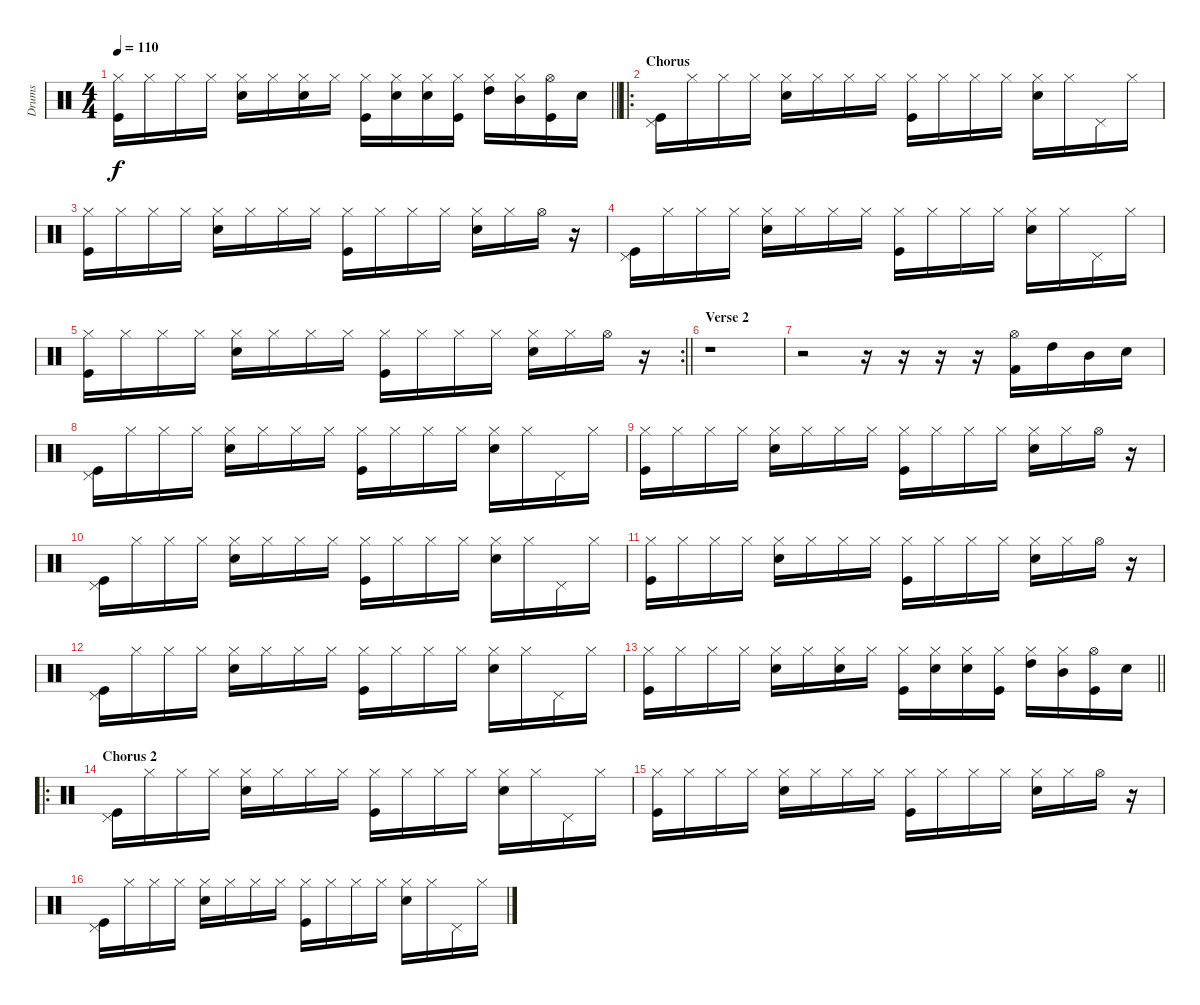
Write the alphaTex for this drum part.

\track ("Drums" "Drums") {instrument percussion}
\staff {score}
\articulation defaults
\ts (4 4)
\tempo 110
\clef neutral
\barLineRight lightlight
\ks c
("Hi-Hat (closed)" "Kick (hit)").16{dy f} "Hi-Hat (closed)".16 "Hi-Hat (closed)".16 "Hi-Hat (closed)".16 ("Hi-Hat (closed)" "Snare (hit) 2").16 "Hi-Hat (closed)".16 ("Hi-Hat (closed)" "Snare (hit) 2").16 "Hi-Hat (closed)".16 ("Hi-Hat (closed)" "Kick (hit)").16 ("Hi-Hat (closed)" "Snare (hit) 2").16 ("Hi-Hat (closed)" "Snare (hit) 2").16 ("Hi-Hat (closed)" "Kick (hit)").16 ("Hi-Hat (closed)" "High Tom (hit)").16 ("Hi-Hat (closed)" "Mid Tom (hit)").16 ("Hi-Hat (open)" "Kick (hit)").16 "Snare (hit) 2".16 |
\ro
\section ("" "Chorus")
("Pedal Hi-Hat (hit)" "Kick (hit)").16 "Hi-Hat (closed)".16 "Hi-Hat (closed)".16 "Hi-Hat (closed)".16 ("Hi-Hat (closed)" "Snare (hit) 2").16 "Hi-Hat (closed)".16 "Hi-Hat (closed)".16 "Hi-Hat (closed)".16 ("Hi-Hat (closed)" "Kick (hit)").16 "Hi-Hat (closed)".16 "Hi-Hat (closed)".16 "Hi-Hat (closed)".16 ("Hi-Hat (closed)" "Snare (hit) 2").16 "Hi-Hat (closed)".16 "Pedal Hi-Hat (hit)".16 "Hi-Hat (closed)".16 |
("Hi-Hat (closed)" "Kick (hit)").16 "Hi-Hat (closed)".16 "Hi-Hat (closed)".16 "Hi-Hat (closed)".16 ("Hi-Hat (closed)" "Snare (hit) 2").16 "Hi-Hat (closed)".16 "Hi-Hat (closed)".16 "Hi-Hat (closed)".16 ("Hi-Hat (closed)" "Kick (hit)").16 "Hi-Hat (closed)".16 "Hi-Hat (closed)".16 "Hi-Hat (closed)".16 ("Hi-Hat (closed)" "Snare (hit) 2").16 "Hi-Hat (closed)".16 "Hi-Hat (open)".16 r.16 |
("Pedal Hi-Hat (hit)" "Kick (hit)").16 "Hi-Hat (closed)".16 "Hi-Hat (closed)".16 "Hi-Hat (closed)".16 ("Hi-Hat (closed)" "Snare (hit) 2").16 "Hi-Hat (closed)".16 "Hi-Hat (closed)".16 "Hi-Hat (closed)".16 ("Hi-Hat (closed)" "Kick (hit)").16 "Hi-Hat (closed)".16 "Hi-Hat (closed)".16 "Hi-Hat (closed)".16 ("Hi-Hat (closed)" "Snare (hit) 2").16 "Hi-Hat (closed)".16 "Pedal Hi-Hat (hit)".16 "Hi-Hat (closed)".16 |
\rc 2
\barLineRight lightlight
("Hi-Hat (closed)" "Kick (hit)").16 "Hi-Hat (closed)".16 "Hi-Hat (closed)".16 "Hi-Hat (closed)".16 ("Hi-Hat (closed)" "Snare (hit) 2").16 "Hi-Hat (closed)".16 "Hi-Hat (closed)".16 "Hi-Hat (closed)".16 ("Hi-Hat (closed)" "Kick (hit)").16 "Hi-Hat (closed)".16 "Hi-Hat (closed)".16 "Hi-Hat (closed)".16 ("Hi-Hat (closed)" "Snare (hit) 2").16 "Hi-Hat (closed)".16 "Hi-Hat (open)".16 r.16 |
\section ("" "Verse 2")
r.1 |
r.2 r.16 r.16 r.16 r.16 ("Hi-Hat (open)" "Kick (hit) 2").16 "High Tom (hit)".16 "Mid Tom (hit)".16 "Snare (hit) 2".16 |
("Pedal Hi-Hat (hit)" "Kick (hit)").16 "Hi-Hat (closed)".16 "Hi-Hat (closed)".16 "Hi-Hat (closed)".16 ("Hi-Hat (closed)" "Snare (hit) 2").16 "Hi-Hat (closed)".16 "Hi-Hat (closed)".16 "Hi-Hat (closed)".16 ("Hi-Hat (closed)" "Kick (hit)").16 "Hi-Hat (closed)".16 "Hi-Hat (closed)".16 "Hi-Hat (closed)".16 ("Hi-Hat (closed)" "Snare (hit) 2").16 "Hi-Hat (closed)".16 "Pedal Hi-Hat (hit)".16 "Hi-Hat (closed)".16 |
("Hi-Hat (closed)" "Kick (hit)").16 "Hi-Hat (closed)".16 "Hi-Hat (closed)".16 "Hi-Hat (closed)".16 ("Hi-Hat (closed)" "Snare (hit) 2").16 "Hi-Hat (closed)".16 "Hi-Hat (closed)".16 "Hi-Hat (closed)".16 ("Hi-Hat (closed)" "Kick (hit)").16 "Hi-Hat (closed)".16 "Hi-Hat (closed)".16 "Hi-Hat (closed)".16 ("Hi-Hat (closed)" "Snare (hit) 2").16 "Hi-Hat (closed)".16 "Hi-Hat (open)".16 r.16 |
("Pedal Hi-Hat (hit)" "Kick (hit)").16 "Hi-Hat (closed)".16 "Hi-Hat (closed)".16 "Hi-Hat (closed)".16 ("Hi-Hat (closed)" "Snare (hit) 2").16 "Hi-Hat (closed)".16 "Hi-Hat (closed)".16 "Hi-Hat (closed)".16 ("Hi-Hat (closed)" "Kick (hit)").16 "Hi-Hat (closed)".16 "Hi-Hat (closed)".16 "Hi-Hat (closed)".16 ("Hi-Hat (closed)" "Snare (hit) 2").16 "Hi-Hat (closed)".16 "Pedal Hi-Hat (hit)".16 "Hi-Hat (closed)".16 |
("Hi-Hat (closed)" "Kick (hit)").16 "Hi-Hat (closed)".16 "Hi-Hat (closed)".16 "Hi-Hat (closed)".16 ("Hi-Hat (closed)" "Snare (hit) 2").16 "Hi-Hat (closed)".16 "Hi-Hat (closed)".16 "Hi-Hat (closed)".16 ("Hi-Hat (closed)" "Kick (hit)").16 "Hi-Hat (closed)".16 "Hi-Hat (closed)".16 "Hi-Hat (closed)".16 ("Hi-Hat (closed)" "Snare (hit) 2").16 "Hi-Hat (closed)".16 "Hi-Hat (open)".16 r.16 |
("Pedal Hi-Hat (hit)" "Kick (hit)").16 "Hi-Hat (closed)".16 "Hi-Hat (closed)".16 "Hi-Hat (closed)".16 ("Hi-Hat (closed)" "Snare (hit) 2").16 "Hi-Hat (closed)".16 "Hi-Hat (closed)".16 "Hi-Hat (closed)".16 ("Hi-Hat (closed)" "Kick (hit)").16 "Hi-Hat (closed)".16 "Hi-Hat (closed)".16 "Hi-Hat (closed)".16 ("Hi-Hat (closed)" "Snare (hit) 2").16 "Hi-Hat (closed)".16 "Pedal Hi-Hat (hit)".16 "Hi-Hat (closed)".16 |
\barLineRight lightlight
("Hi-Hat (closed)" "Kick (hit)").16 "Hi-Hat (closed)".16 "Hi-Hat (closed)".16 "Hi-Hat (closed)".16 ("Hi-Hat (closed)" "Snare (hit) 2").16 "Hi-Hat (closed)".16 ("Hi-Hat (closed)" "Snare (hit) 2").16 "Hi-Hat (closed)".16 ("Hi-Hat (closed)" "Kick (hit)").16 ("Hi-Hat (closed)" "Snare (hit) 2").16 ("Hi-Hat (closed)" "Snare (hit) 2").16 ("Hi-Hat (closed)" "Kick (hit)").16 ("Hi-Hat (closed)" "High Tom (hit)").16 ("Hi-Hat (closed)" "Mid Tom (hit)").16 ("Hi-Hat (open)" "Kick (hit)").16 "Snare (hit) 2".16 |
\ro
\section ("" "Chorus 2")
("Pedal Hi-Hat (hit)" "Kick (hit)").16 "Hi-Hat (closed)".16 "Hi-Hat (closed)".16 "Hi-Hat (closed)".16 ("Hi-Hat (closed)" "Snare (hit) 2").16 "Hi-Hat (closed)".16 "Hi-Hat (closed)".16 "Hi-Hat (closed)".16 ("Hi-Hat (closed)" "Kick (hit)").16 "Hi-Hat (closed)".16 "Hi-Hat (closed)".16 "Hi-Hat (closed)".16 ("Hi-Hat (closed)" "Snare (hit) 2").16 "Hi-Hat (closed)".16 "Pedal Hi-Hat (hit)".16 "Hi-Hat (closed)".16 |
("Hi-Hat (closed)" "Kick (hit)").16 "Hi-Hat (closed)".16 "Hi-Hat (closed)".16 "Hi-Hat (closed)".16 ("Hi-Hat (closed)" "Snare (hit) 2").16 "Hi-Hat (closed)".16 "Hi-Hat (closed)".16 "Hi-Hat (closed)".16 ("Hi-Hat (closed)" "Kick (hit)").16 "Hi-Hat (closed)".16 "Hi-Hat (closed)".16 "Hi-Hat (closed)".16 ("Hi-Hat (closed)" "Snare (hit) 2").16 "Hi-Hat (closed)".16 "Hi-Hat (open)".16 r.16 |
("Pedal Hi-Hat (hit)" "Kick (hit)").16 "Hi-Hat (closed)".16 "Hi-Hat (closed)".16 "Hi-Hat (closed)".16 ("Hi-Hat (closed)" "Snare (hit) 2").16 "Hi-Hat (closed)".16 "Hi-Hat (closed)".16 "Hi-Hat (closed)".16 ("Hi-Hat (closed)" "Kick (hit)").16 "Hi-Hat (closed)".16 "Hi-Hat (closed)".16 "Hi-Hat (closed)".16 ("Hi-Hat (closed)" "Snare (hit) 2").16 "Hi-Hat (closed)".16 "Pedal Hi-Hat (hit)".16 "Hi-Hat (closed)".16
